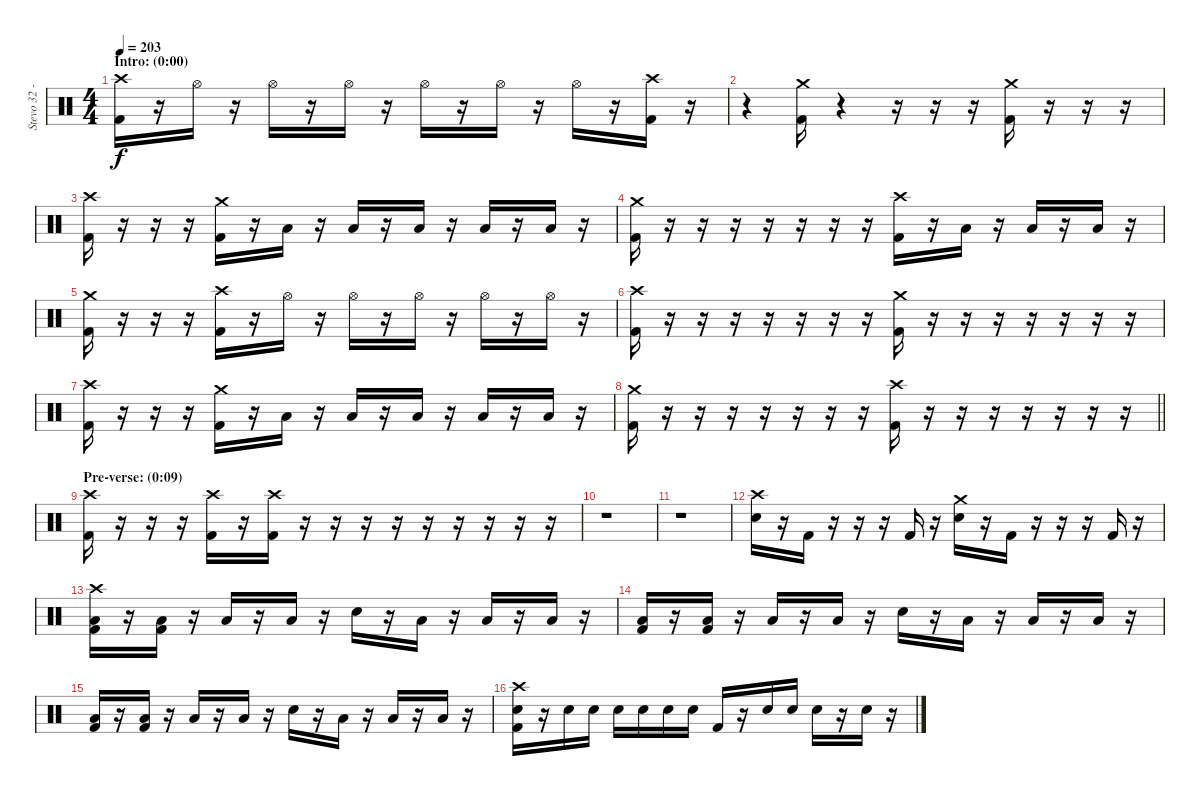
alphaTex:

\track ("Stevo 32 - Drums" "Stevo 32 -") {instrument percussion}
\staff {score}
\articulation defaults
\ts (4 4)
\section ("" "Intro: (0:00)")
\tempo 203
\clef neutral
\ks c
("Crash high (hit)" "Kick (hit) 2").16{dy f} r.16 "Hi-Hat (open)".16 r.16 "Hi-Hat (open)".16 r.16 "Hi-Hat (open)".16 r.16 "Hi-Hat (open)".16 r.16 "Hi-Hat (open)".16 r.16 "Hi-Hat (open)".16 r.16 ("Crash high (hit)" "Kick (hit) 2").16 r.16 |
r.4 ("Crash medium (hit)" "Kick (hit) 2").16 r.4 r.16 r.16 r.16 ("Crash medium (hit)" "Kick (hit) 2").16 r.16 r.16 r.16 |
("Crash high (hit)" "Kick (hit) 2").16 r.16 r.16 r.16 ("Crash medium (hit)" "Kick (hit) 2").16 r.16 "Low Tom (hit)".16 r.16 "Low Tom (hit)".16 r.16 "Low Tom (hit)".16 r.16 "Low Tom (hit)".16 r.16 "Low Tom (hit)".16 r.16 |
("Crash medium (hit)" "Kick (hit) 2").16 r.16 r.16 r.16 r.16 r.16 r.16 r.16 ("Crash high (hit)" "Kick (hit) 2").16 r.16 "Low Tom (hit)".16 r.16 "Low Tom (hit)".16 r.16 "Low Tom (hit)".16 r.16 |
("Crash medium (hit)" "Kick (hit) 2").16 r.16 r.16 r.16 ("Crash high (hit)" "Kick (hit) 2").16 r.16 "Hi-Hat (open)".16 r.16 "Hi-Hat (open)".16 r.16 "Hi-Hat (open)".16 r.16 "Hi-Hat (open)".16 r.16 "Hi-Hat (open)".16 r.16 |
("Crash high (hit)" "Kick (hit) 2").16 r.16 r.16 r.16 r.16 r.16 r.16 r.16 ("Crash medium (hit)" "Kick (hit) 2").16 r.16 r.16 r.16 r.16 r.16 r.16 r.16 |
("Crash high (hit)" "Kick (hit) 2").16 r.16 r.16 r.16 ("Crash medium (hit)" "Kick (hit) 2").16 r.16 "Low Tom (hit)".16 r.16 "Low Tom (hit)".16 r.16 "Low Tom (hit)".16 r.16 "Low Tom (hit)".16 r.16 "Low Tom (hit)".16 r.16 |
\barLineRight lightlight
("Crash medium (hit)" "Kick (hit) 2").16 r.16 r.16 r.16 r.16 r.16 r.16 r.16 ("Crash high (hit)" "Kick (hit) 2").16 r.16 r.16 r.16 r.16 r.16 r.16 r.16 |
\section ("" "Pre-verse: (0:09)")
("Crash high (hit)" "Kick (hit) 2").16 r.16 r.16 r.16 ("Crash high (hit)" "Kick (hit) 2").16 r.16 ("Crash high (hit)" "Kick (hit) 2").16 r.16 r.16 r.16 r.16 r.16 r.16 r.16 r.16 r.16 |
r.1 |
r.1 |
("Crash high (hit)" "Snare (hit) 2").16 r.16 "Kick (hit) 2".16 r.16 r.16 r.16 "Kick (hit) 2".16 r.16 ("Crash medium (hit)" "Snare (hit) 2").16 r.16 "Kick (hit) 2".16 r.16 r.16 r.16 "Kick (hit) 2".16 r.16 |
("Crash high (hit)" "Low Tom (hit)" "Kick (hit) 2").16 r.16 ("Low Tom (hit)" "Kick (hit) 2").16 r.16 "Low Tom (hit)".16 r.16 "Low Tom (hit)".16 r.16 "Snare (hit) 2".16 r.16 "Low Tom (hit)".16 r.16 "Low Tom (hit)".16 r.16 "Low Tom (hit)".16 r.16 |
("Low Tom (hit)" "Kick (hit) 2").16 r.16 ("Low Tom (hit)" "Kick (hit) 2").16 r.16 "Low Tom (hit)".16 r.16 "Low Tom (hit)".16 r.16 "Snare (hit) 2".16 r.16 "Low Tom (hit)".16 r.16 "Low Tom (hit)".16 r.16 "Low Tom (hit)".16 r.16 |
("Low Tom (hit)" "Kick (hit) 2").16 r.16 ("Low Tom (hit)" "Kick (hit) 2").16 r.16 "Low Tom (hit)".16 r.16 "Low Tom (hit)".16 r.16 "Snare (hit) 2".16 r.16 "Low Tom (hit)".16 r.16 "Low Tom (hit)".16 r.16 "Low Tom (hit)".16 r.16 |
("Crash high (hit)" "Snare (hit) 2" "Kick (hit) 2").16 r.16 "Snare (hit) 2".16 "Snare (hit) 2".16 "Snare (hit) 2".16 "Snare (hit) 2".16 "Snare (hit) 2".16 "Snare (hit) 2".16 "Kick (hit) 2".16 r.16 "Snare (hit) 2".16 "Snare (hit) 2".16 "Snare (hit) 2".16 r.16 "Snare (hit) 2".16 r.16
